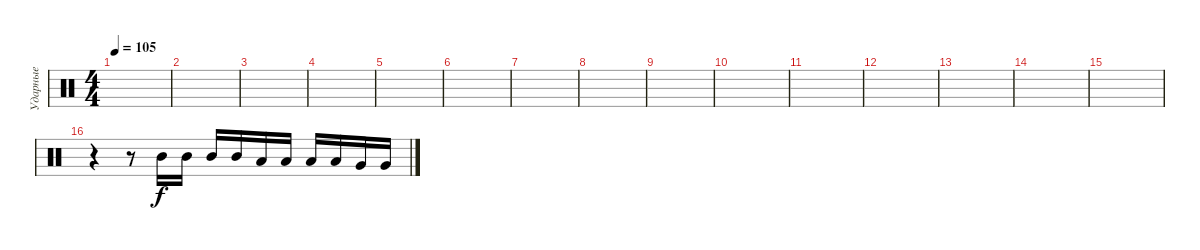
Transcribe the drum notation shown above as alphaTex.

\track ("Ударные" "Ударные") {instrument percussion}
\staff {score}
\articulation defaults
\ts (4 4)
\tempo 105
\clef neutral
\ks c
|
|
|
|
|
|
|
|
|
|
|
|
|
|
|
r.4 r.8 "Mid Tom (hit)".16 "Mid Tom (hit)".16 "Mid Tom (hit)".16 "Mid Tom (hit)".16 "Low Tom (hit)".16 "Low Tom (hit)".16 "Low Tom (hit)".16 "Low Tom (hit)".16 "Very Low Tom (hit)".16 "Very Low Tom (hit)".16
